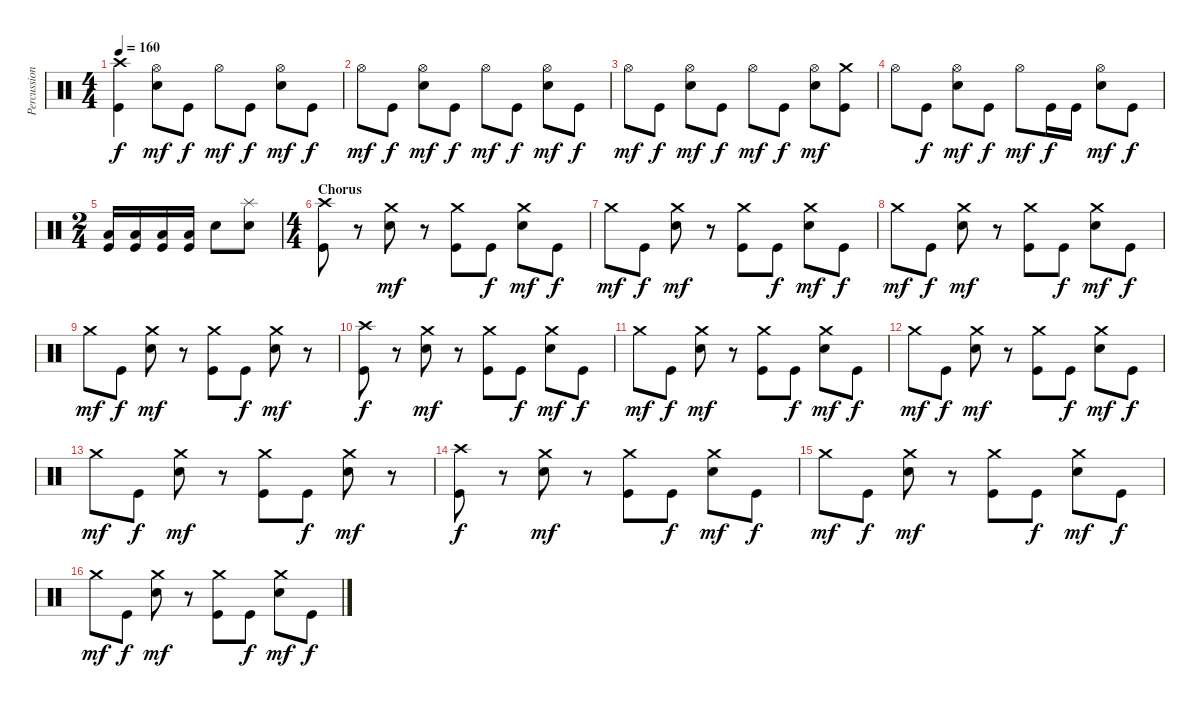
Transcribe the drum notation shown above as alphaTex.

\track ("Percussion" "Percussion") {instrument percussion}
\staff {score}
\articulation defaults
\ts (4 4)
\tempo 160
\clef neutral
\ks c
("Kick (hit)" "Crash high (hit)").4{dy f} ("Electric Snare (hit)" "Hi-Hat (open)").8{dy mf} "Kick (hit)".8{dy f} "Hi-Hat (open)".8{dy mf} "Kick (hit)".8{dy f} ("Electric Snare (hit)" "Hi-Hat (open)").8{dy mf} "Kick (hit)".8{dy f} |
"Hi-Hat (open)".8{dy mf} "Kick (hit)".8{dy f} ("Electric Snare (hit)" "Hi-Hat (open)").8{dy mf} "Kick (hit)".8{dy f} "Hi-Hat (open)".8{dy mf} "Kick (hit)".8{dy f} ("Electric Snare (hit)" "Hi-Hat (open)").8{dy mf} "Kick (hit)".8{dy f} |
"Hi-Hat (open)".8{dy mf} "Kick (hit)".8{dy f} ("Electric Snare (hit)" "Hi-Hat (open)").8{dy mf} "Kick (hit)".8{dy f} "Hi-Hat (open)".8{dy mf} "Kick (hit)".8{dy f} ("Electric Snare (hit)" "Hi-Hat (open)").8{dy mf} ("Kick (hit)" "Crash medium (hit)").8 |
"Hi-Hat (open)".8 "Kick (hit)".8{dy f} ("Electric Snare (hit)" "Hi-Hat (open)").8{dy mf} "Kick (hit)".8{dy f} "Hi-Hat (open)".8{dy mf} "Kick (hit)".16{dy f} "Kick (hit)".16 ("Electric Snare (hit)" "Hi-Hat (open)").8{dy mf} "Kick (hit)".8{dy f} |
\ts (2 4)
("Low Floor Tom (hit)" "Kick (hit)").16 ("Low Floor Tom (hit)" "Kick (hit)").16 ("Low Floor Tom (hit)" "Kick (hit)").16 ("Low Floor Tom (hit)" "Kick (hit)").16 "Electric Snare (hit)".8 ("Electric Snare (hit)" "Splash (hit)").8 |
\ts (4 4)
\section ("" "Chorus")
("Kick (hit)" "Crash high (hit)").8 r.8 ("Electric Snare (hit)" "Crash medium (hit)").8{dy mf} r.8 ("Kick (hit)" "Crash medium (hit)").8 "Kick (hit)".8{dy f} ("Electric Snare (hit)" "Crash medium (hit)").8{dy mf} "Kick (hit)".8{dy f} |
"Crash medium (hit)".8{dy mf} "Kick (hit)".8{dy f} ("Electric Snare (hit)" "Crash medium (hit)").8{dy mf} r.8 ("Kick (hit)" "Crash medium (hit)").8 "Kick (hit)".8{dy f} ("Electric Snare (hit)" "Crash medium (hit)").8{dy mf} "Kick (hit)".8{dy f} |
"Crash medium (hit)".8{dy mf} "Kick (hit)".8{dy f} ("Electric Snare (hit)" "Crash medium (hit)").8{dy mf} r.8 ("Kick (hit)" "Crash medium (hit)").8 "Kick (hit)".8{dy f} ("Electric Snare (hit)" "Crash medium (hit)").8{dy mf} "Kick (hit)".8{dy f} |
"Crash medium (hit)".8{dy mf} "Kick (hit)".8{dy f} ("Electric Snare (hit)" "Crash medium (hit)").8{dy mf} r.8 ("Kick (hit)" "Crash medium (hit)").8 "Kick (hit)".8{dy f} ("Electric Snare (hit)" "Crash medium (hit)").8{dy mf} r.8 |
("Kick (hit)" "Crash high (hit)").8{dy f} r.8 ("Electric Snare (hit)" "Crash medium (hit)").8{dy mf} r.8 ("Kick (hit)" "Crash medium (hit)").8 "Kick (hit)".8{dy f} ("Electric Snare (hit)" "Crash medium (hit)").8{dy mf} "Kick (hit)".8{dy f} |
"Crash medium (hit)".8{dy mf} "Kick (hit)".8{dy f} ("Electric Snare (hit)" "Crash medium (hit)").8{dy mf} r.8 ("Kick (hit)" "Crash medium (hit)").8 "Kick (hit)".8{dy f} ("Electric Snare (hit)" "Crash medium (hit)").8{dy mf} "Kick (hit)".8{dy f} |
"Crash medium (hit)".8{dy mf} "Kick (hit)".8{dy f} ("Electric Snare (hit)" "Crash medium (hit)").8{dy mf} r.8 ("Kick (hit)" "Crash medium (hit)").8 "Kick (hit)".8{dy f} ("Electric Snare (hit)" "Crash medium (hit)").8{dy mf} "Kick (hit)".8{dy f} |
"Crash medium (hit)".8{dy mf} "Kick (hit)".8{dy f} ("Electric Snare (hit)" "Crash medium (hit)").8{dy mf} r.8 ("Kick (hit)" "Crash medium (hit)").8 "Kick (hit)".8{dy f} ("Electric Snare (hit)" "Crash medium (hit)").8{dy mf} r.8 |
("Kick (hit)" "Crash high (hit)").8{dy f} r.8 ("Electric Snare (hit)" "Crash medium (hit)").8{dy mf} r.8 ("Kick (hit)" "Crash medium (hit)").8 "Kick (hit)".8{dy f} ("Electric Snare (hit)" "Crash medium (hit)").8{dy mf} "Kick (hit)".8{dy f} |
"Crash medium (hit)".8{dy mf} "Kick (hit)".8{dy f} ("Electric Snare (hit)" "Crash medium (hit)").8{dy mf} r.8 ("Kick (hit)" "Crash medium (hit)").8 "Kick (hit)".8{dy f} ("Electric Snare (hit)" "Crash medium (hit)").8{dy mf} "Kick (hit)".8{dy f} |
"Crash medium (hit)".8{dy mf} "Kick (hit)".8{dy f} ("Electric Snare (hit)" "Crash medium (hit)").8{dy mf} r.8 ("Kick (hit)" "Crash medium (hit)").8 "Kick (hit)".8{dy f} ("Electric Snare (hit)" "Crash medium (hit)").8{dy mf} "Kick (hit)".8{dy f}
